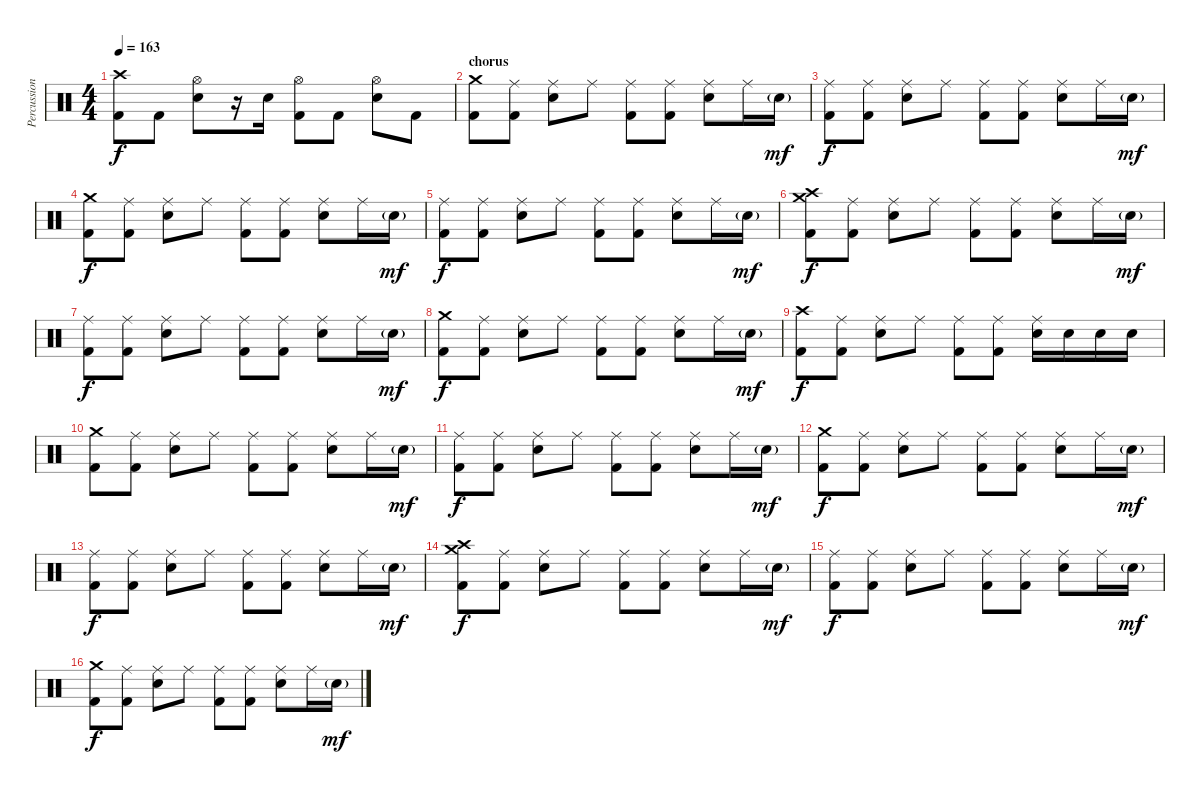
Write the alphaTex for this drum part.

\track ("Percussion" "Percussion") {instrument percussion}
\staff {score}
\articulation defaults
\ts (4 4)
\tempo 163
\clef neutral
\ks c
("Crash high (hit)" "Kick (hit) 2").8{dy f} "Kick (hit) 2".8 ("Hi-Hat (open)" "Electric Snare (hit)").8 r.16 "Electric Snare (hit)".16 ("Hi-Hat (open)" "Kick (hit) 2").8 "Kick (hit) 2".8 ("Hi-Hat (open)" "Electric Snare (hit)").8 "Kick (hit) 2".8 |
\section ("" "chorus")
("Crash medium (hit)" "Kick (hit) 2").8 ("Ride (middle)" "Kick (hit) 2").8 ("Ride (middle)" "Electric Snare (hit)").8 "Ride (middle)".8 ("Ride (middle)" "Kick (hit) 2").8 ("Ride (middle)" "Kick (hit) 2").8 ("Ride (middle)" "Electric Snare (hit)").8 "Ride (middle)".16 "Electric Snare (hit)"{g}.16{dy mf} |
("Ride (middle)" "Kick (hit) 2").8{dy f} ("Ride (middle)" "Kick (hit) 2").8 ("Ride (middle)" "Electric Snare (hit)").8 "Ride (middle)".8 ("Ride (middle)" "Kick (hit) 2").8 ("Ride (middle)" "Kick (hit) 2").8 ("Ride (middle)" "Electric Snare (hit)").8 "Ride (middle)".16 "Electric Snare (hit)"{g}.16{dy mf} |
("Crash medium (hit)" "Kick (hit) 2").8{dy f} ("Ride (middle)" "Kick (hit) 2").8 ("Ride (middle)" "Electric Snare (hit)").8 "Ride (middle)".8 ("Ride (middle)" "Kick (hit) 2").8 ("Ride (middle)" "Kick (hit) 2").8 ("Ride (middle)" "Electric Snare (hit)").8 "Ride (middle)".16 "Electric Snare (hit)"{g}.16{dy mf} |
("Ride (middle)" "Kick (hit) 2").8{dy f} ("Ride (middle)" "Kick (hit) 2").8 ("Ride (middle)" "Electric Snare (hit)").8 "Ride (middle)".8 ("Ride (middle)" "Kick (hit) 2").8 ("Ride (middle)" "Kick (hit) 2").8 ("Ride (middle)" "Electric Snare (hit)").8 "Ride (middle)".16 "Electric Snare (hit)"{g}.16{dy mf} |
("Crash medium (hit)" "Crash high (hit)" "Kick (hit) 2").8{dy f} ("Ride (middle)" "Kick (hit) 2").8 ("Ride (middle)" "Electric Snare (hit)").8 "Ride (middle)".8 ("Ride (middle)" "Kick (hit) 2").8 ("Ride (middle)" "Kick (hit) 2").8 ("Ride (middle)" "Electric Snare (hit)").8 "Ride (middle)".16 "Electric Snare (hit)"{g}.16{dy mf} |
("Ride (middle)" "Kick (hit) 2").8{dy f} ("Ride (middle)" "Kick (hit) 2").8 ("Ride (middle)" "Electric Snare (hit)").8 "Ride (middle)".8 ("Ride (middle)" "Kick (hit) 2").8 ("Ride (middle)" "Kick (hit) 2").8 ("Ride (middle)" "Electric Snare (hit)").8 "Ride (middle)".16 "Electric Snare (hit)"{g}.16{dy mf} |
("Crash medium (hit)" "Kick (hit) 2").8{dy f} ("Ride (middle)" "Kick (hit) 2").8 ("Ride (middle)" "Electric Snare (hit)").8 "Ride (middle)".8 ("Ride (middle)" "Kick (hit) 2").8 ("Ride (middle)" "Kick (hit) 2").8 ("Ride (middle)" "Electric Snare (hit)").8 "Ride (middle)".16 "Electric Snare (hit)"{g}.16{dy mf} |
("Crash high (hit)" "Kick (hit) 2").8{dy f} ("Ride (middle)" "Kick (hit) 2").8 ("Ride (middle)" "Electric Snare (hit)").8 "Ride (middle)".8 ("Ride (middle)" "Kick (hit) 2").8 ("Ride (middle)" "Kick (hit) 2").8 ("Ride (middle)" "Electric Snare (hit)").16 "Electric Snare (hit)".16 "Electric Snare (hit)".16 "Electric Snare (hit)".16 |
("Crash medium (hit)" "Kick (hit) 2").8 ("Ride (middle)" "Kick (hit) 2").8 ("Ride (middle)" "Electric Snare (hit)").8 "Ride (middle)".8 ("Ride (middle)" "Kick (hit) 2").8 ("Ride (middle)" "Kick (hit) 2").8 ("Ride (middle)" "Electric Snare (hit)").8 "Ride (middle)".16 "Electric Snare (hit)"{g}.16{dy mf} |
("Ride (middle)" "Kick (hit) 2").8{dy f} ("Ride (middle)" "Kick (hit) 2").8 ("Ride (middle)" "Electric Snare (hit)").8 "Ride (middle)".8 ("Ride (middle)" "Kick (hit) 2").8 ("Ride (middle)" "Kick (hit) 2").8 ("Ride (middle)" "Electric Snare (hit)").8 "Ride (middle)".16 "Electric Snare (hit)"{g}.16{dy mf} |
("Crash medium (hit)" "Kick (hit) 2").8{dy f} ("Ride (middle)" "Kick (hit) 2").8 ("Ride (middle)" "Electric Snare (hit)").8 "Ride (middle)".8 ("Ride (middle)" "Kick (hit) 2").8 ("Ride (middle)" "Kick (hit) 2").8 ("Ride (middle)" "Electric Snare (hit)").8 "Ride (middle)".16 "Electric Snare (hit)"{g}.16{dy mf} |
("Ride (middle)" "Kick (hit) 2").8{dy f} ("Ride (middle)" "Kick (hit) 2").8 ("Ride (middle)" "Electric Snare (hit)").8 "Ride (middle)".8 ("Ride (middle)" "Kick (hit) 2").8 ("Ride (middle)" "Kick (hit) 2").8 ("Ride (middle)" "Electric Snare (hit)").8 "Ride (middle)".16 "Electric Snare (hit)"{g}.16{dy mf} |
("Crash medium (hit)" "Crash high (hit)" "Kick (hit) 2").8{dy f} ("Ride (middle)" "Kick (hit) 2").8 ("Ride (middle)" "Electric Snare (hit)").8 "Ride (middle)".8 ("Ride (middle)" "Kick (hit) 2").8 ("Ride (middle)" "Kick (hit) 2").8 ("Ride (middle)" "Electric Snare (hit)").8 "Ride (middle)".16 "Electric Snare (hit)"{g}.16{dy mf} |
("Ride (middle)" "Kick (hit) 2").8{dy f} ("Ride (middle)" "Kick (hit) 2").8 ("Ride (middle)" "Electric Snare (hit)").8 "Ride (middle)".8 ("Ride (middle)" "Kick (hit) 2").8 ("Ride (middle)" "Kick (hit) 2").8 ("Ride (middle)" "Electric Snare (hit)").8 "Ride (middle)".16 "Electric Snare (hit)"{g}.16{dy mf} |
("Crash medium (hit)" "Kick (hit) 2").8{dy f} ("Ride (middle)" "Kick (hit) 2").8 ("Ride (middle)" "Electric Snare (hit)").8 "Ride (middle)".8 ("Ride (middle)" "Kick (hit) 2").8 ("Ride (middle)" "Kick (hit) 2").8 ("Ride (middle)" "Electric Snare (hit)").8 "Ride (middle)".16 "Electric Snare (hit)"{g}.16{dy mf}
